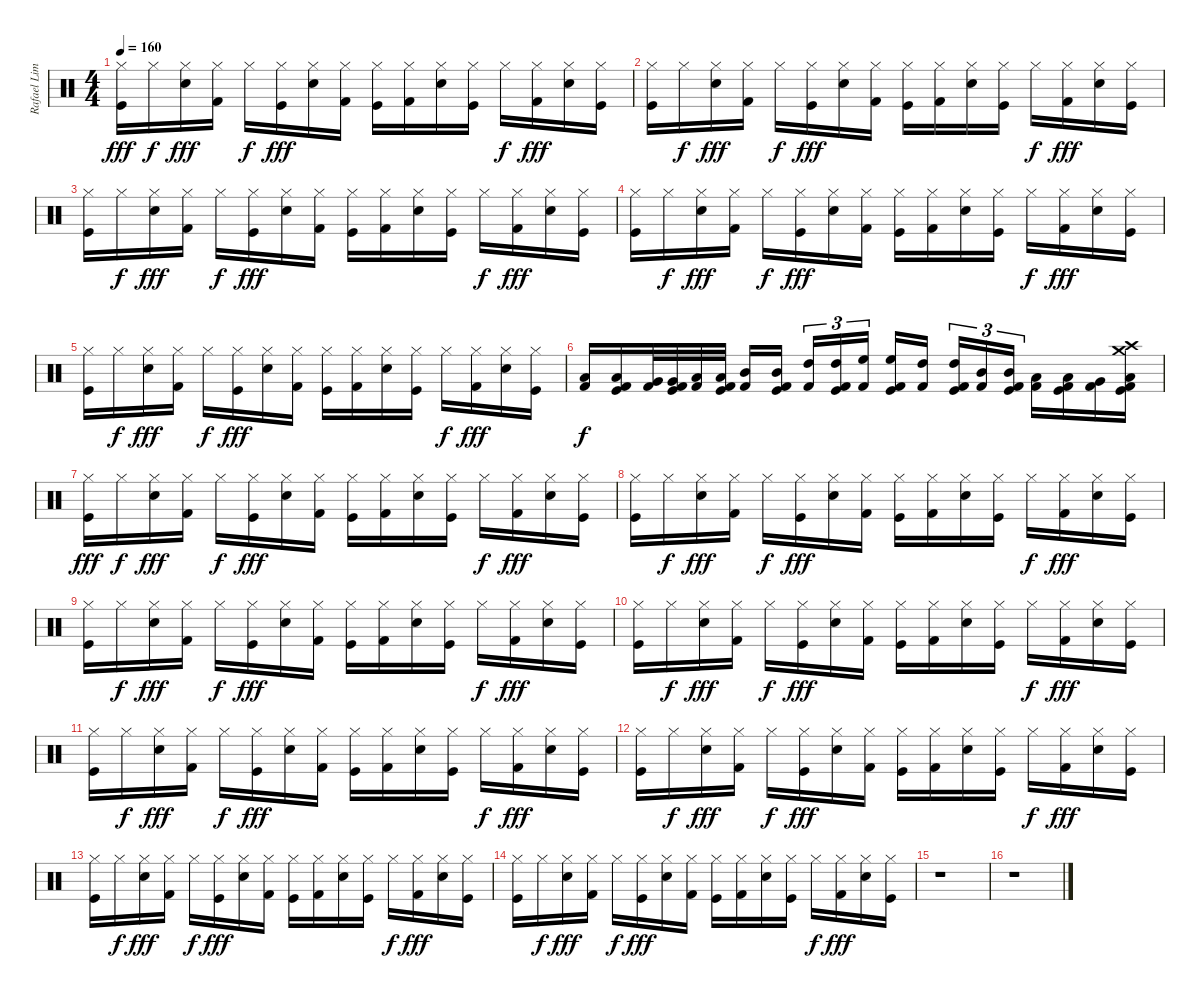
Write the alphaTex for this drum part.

\track ("Rafael Lima" "Rafael Lim") {instrument percussion}
\staff {score}
\articulation defaults
\ts (4 4)
\tempo 160
\clef neutral
\ks c
("Hi-Hat (closed)" "Kick (hit)").16{dy fff} "Hi-Hat (closed)".16{dy f} ("Hi-Hat (closed)" "Electric Snare (hit)").16{dy fff} ("Hi-Hat (closed)" "Kick (hit) 2").16 "Hi-Hat (closed)".16{dy f} ("Hi-Hat (closed)" "Kick (hit)").16{dy fff} ("Hi-Hat (closed)" "Electric Snare (hit)").16 ("Hi-Hat (closed)" "Kick (hit) 2").16 ("Hi-Hat (closed)" "Kick (hit)").16 ("Hi-Hat (closed)" "Kick (hit) 2").16 ("Hi-Hat (closed)" "Electric Snare (hit)").16 ("Hi-Hat (closed)" "Kick (hit)").16 "Hi-Hat (closed)".16{dy f} ("Hi-Hat (closed)" "Kick (hit) 2").16{dy fff} ("Hi-Hat (closed)" "Electric Snare (hit)").16 ("Hi-Hat (closed)" "Kick (hit)").16 |
("Hi-Hat (closed)" "Kick (hit)").16 "Hi-Hat (closed)".16{dy f} ("Hi-Hat (closed)" "Electric Snare (hit)").16{dy fff} ("Hi-Hat (closed)" "Kick (hit) 2").16 "Hi-Hat (closed)".16{dy f} ("Hi-Hat (closed)" "Kick (hit)").16{dy fff} ("Hi-Hat (closed)" "Electric Snare (hit)").16 ("Hi-Hat (closed)" "Kick (hit) 2").16 ("Hi-Hat (closed)" "Kick (hit)").16 ("Hi-Hat (closed)" "Kick (hit) 2").16 ("Hi-Hat (closed)" "Electric Snare (hit)").16 ("Hi-Hat (closed)" "Kick (hit)").16 "Hi-Hat (closed)".16{dy f} ("Hi-Hat (closed)" "Kick (hit) 2").16{dy fff} ("Hi-Hat (closed)" "Electric Snare (hit)").16 ("Hi-Hat (closed)" "Kick (hit)").16 |
("Hi-Hat (closed)" "Kick (hit)").16 "Hi-Hat (closed)".16{dy f} ("Hi-Hat (closed)" "Electric Snare (hit)").16{dy fff} ("Hi-Hat (closed)" "Kick (hit) 2").16 "Hi-Hat (closed)".16{dy f} ("Hi-Hat (closed)" "Kick (hit)").16{dy fff} ("Hi-Hat (closed)" "Electric Snare (hit)").16 ("Hi-Hat (closed)" "Kick (hit) 2").16 ("Hi-Hat (closed)" "Kick (hit)").16 ("Hi-Hat (closed)" "Kick (hit) 2").16 ("Hi-Hat (closed)" "Electric Snare (hit)").16 ("Hi-Hat (closed)" "Kick (hit)").16 "Hi-Hat (closed)".16{dy f} ("Hi-Hat (closed)" "Kick (hit) 2").16{dy fff} ("Hi-Hat (closed)" "Electric Snare (hit)").16 ("Hi-Hat (closed)" "Kick (hit)").16 |
("Hi-Hat (closed)" "Kick (hit)").16 "Hi-Hat (closed)".16{dy f} ("Hi-Hat (closed)" "Electric Snare (hit)").16{dy fff} ("Hi-Hat (closed)" "Kick (hit) 2").16 "Hi-Hat (closed)".16{dy f} ("Hi-Hat (closed)" "Kick (hit)").16{dy fff} ("Hi-Hat (closed)" "Electric Snare (hit)").16 ("Hi-Hat (closed)" "Kick (hit) 2").16 ("Hi-Hat (closed)" "Kick (hit)").16 ("Hi-Hat (closed)" "Kick (hit) 2").16 ("Hi-Hat (closed)" "Electric Snare (hit)").16 ("Hi-Hat (closed)" "Kick (hit)").16 "Hi-Hat (closed)".16{dy f} ("Hi-Hat (closed)" "Kick (hit) 2").16{dy fff} ("Hi-Hat (closed)" "Electric Snare (hit)").16 ("Hi-Hat (closed)" "Kick (hit)").16 |
("Hi-Hat (closed)" "Kick (hit)").16 "Hi-Hat (closed)".16{dy f} ("Hi-Hat (closed)" "Electric Snare (hit)").16{dy fff} ("Hi-Hat (closed)" "Kick (hit) 2").16 "Hi-Hat (closed)".16{dy f} ("Hi-Hat (closed)" "Kick (hit)").16{dy fff} ("Hi-Hat (closed)" "Electric Snare (hit)").16 ("Hi-Hat (closed)" "Kick (hit) 2").16 ("Hi-Hat (closed)" "Kick (hit)").16 ("Hi-Hat (closed)" "Kick (hit) 2").16 ("Hi-Hat (closed)" "Electric Snare (hit)").16 ("Hi-Hat (closed)" "Kick (hit)").16 "Hi-Hat (closed)".16{dy f} ("Hi-Hat (closed)" "Kick (hit) 2").16{dy fff} ("Hi-Hat (closed)" "Electric Snare (hit)").16 ("Hi-Hat (closed)" "Kick (hit)").16 |
("Low Floor Tom (hit)" "Kick (hit) 2").16{dy f} ("Low Floor Tom (hit)" "Kick (hit)" "Kick (hit) 2").16 ("Very Low Tom (hit)" "Kick (hit) 2").32 ("Very Low Tom (hit)" "Kick (hit)" "Kick (hit) 2").32 ("Low Tom (hit)" "Kick (hit) 2").32 ("Low Tom (hit)" "Kick (hit)" "Kick (hit) 2").32 ("Mid Tom (hit)" "Kick (hit) 2").16 ("Mid Tom (hit)" "Kick (hit)" "Kick (hit) 2").16 ("High Tom (hit)" "Kick (hit) 2").16{tu (3 2)} ("High Tom (hit)" "Kick (hit)" "Kick (hit) 2").16{tu (3 2)} ("High Floor Tom (hit)" "Kick (hit) 2").16{tu (3 2)} ("High Floor Tom (hit)" "Kick (hit)" "Kick (hit) 2").16 ("High Tom (hit)" "Kick (hit) 2").16 ("High Tom (hit)" "Kick (hit)" "Kick (hit) 2").16{tu (3 2)} ("Mid Tom (hit)" "Kick (hit) 2").16{tu (3 2)} ("Mid Tom (hit)" "Kick (hit)" "Kick (hit) 2").16{tu (3 2)} ("Low Tom (hit)" "Kick (hit) 2").16 ("Low Tom (hit)" "Kick (hit)" "Kick (hit) 2").16 ("Very Low Tom (hit)" "Kick (hit) 2").16 ("Crash medium (hit)" "Crash high (hit)" "Low Floor Tom (hit)" "Kick (hit)" "Kick (hit) 2").16 |
("Hi-Hat (closed)" "Kick (hit)").16{dy fff} "Hi-Hat (closed)".16{dy f} ("Hi-Hat (closed)" "Electric Snare (hit)").16{dy fff} ("Hi-Hat (closed)" "Kick (hit) 2").16 "Hi-Hat (closed)".16{dy f} ("Hi-Hat (closed)" "Kick (hit)").16{dy fff} ("Hi-Hat (closed)" "Electric Snare (hit)").16 ("Hi-Hat (closed)" "Kick (hit) 2").16 ("Hi-Hat (closed)" "Kick (hit)").16 ("Hi-Hat (closed)" "Kick (hit) 2").16 ("Hi-Hat (closed)" "Electric Snare (hit)").16 ("Hi-Hat (closed)" "Kick (hit)").16 "Hi-Hat (closed)".16{dy f} ("Hi-Hat (closed)" "Kick (hit) 2").16{dy fff} ("Hi-Hat (closed)" "Electric Snare (hit)").16 ("Hi-Hat (closed)" "Kick (hit)").16 |
("Hi-Hat (closed)" "Kick (hit)").16 "Hi-Hat (closed)".16{dy f} ("Hi-Hat (closed)" "Electric Snare (hit)").16{dy fff} ("Hi-Hat (closed)" "Kick (hit) 2").16 "Hi-Hat (closed)".16{dy f} ("Hi-Hat (closed)" "Kick (hit)").16{dy fff} ("Hi-Hat (closed)" "Electric Snare (hit)").16 ("Hi-Hat (closed)" "Kick (hit) 2").16 ("Hi-Hat (closed)" "Kick (hit)").16 ("Hi-Hat (closed)" "Kick (hit) 2").16 ("Hi-Hat (closed)" "Electric Snare (hit)").16 ("Hi-Hat (closed)" "Kick (hit)").16 "Hi-Hat (closed)".16{dy f} ("Hi-Hat (closed)" "Kick (hit) 2").16{dy fff} ("Hi-Hat (closed)" "Electric Snare (hit)").16 ("Hi-Hat (closed)" "Kick (hit)").16 |
("Hi-Hat (closed)" "Kick (hit)").16 "Hi-Hat (closed)".16{dy f} ("Hi-Hat (closed)" "Electric Snare (hit)").16{dy fff} ("Hi-Hat (closed)" "Kick (hit) 2").16 "Hi-Hat (closed)".16{dy f} ("Hi-Hat (closed)" "Kick (hit)").16{dy fff} ("Hi-Hat (closed)" "Electric Snare (hit)").16 ("Hi-Hat (closed)" "Kick (hit) 2").16 ("Hi-Hat (closed)" "Kick (hit)").16 ("Hi-Hat (closed)" "Kick (hit) 2").16 ("Hi-Hat (closed)" "Electric Snare (hit)").16 ("Hi-Hat (closed)" "Kick (hit)").16 "Hi-Hat (closed)".16{dy f} ("Hi-Hat (closed)" "Kick (hit) 2").16{dy fff} ("Hi-Hat (closed)" "Electric Snare (hit)").16 ("Hi-Hat (closed)" "Kick (hit)").16 |
("Hi-Hat (closed)" "Kick (hit)").16 "Hi-Hat (closed)".16{dy f} ("Hi-Hat (closed)" "Electric Snare (hit)").16{dy fff} ("Hi-Hat (closed)" "Kick (hit) 2").16 "Hi-Hat (closed)".16{dy f} ("Hi-Hat (closed)" "Kick (hit)").16{dy fff} ("Hi-Hat (closed)" "Electric Snare (hit)").16 ("Hi-Hat (closed)" "Kick (hit) 2").16 ("Hi-Hat (closed)" "Kick (hit)").16 ("Hi-Hat (closed)" "Kick (hit) 2").16 ("Hi-Hat (closed)" "Electric Snare (hit)").16 ("Hi-Hat (closed)" "Kick (hit)").16 "Hi-Hat (closed)".16{dy f} ("Hi-Hat (closed)" "Kick (hit) 2").16{dy fff} ("Hi-Hat (closed)" "Electric Snare (hit)").16 ("Hi-Hat (closed)" "Kick (hit)").16 |
("Hi-Hat (closed)" "Kick (hit)").16 "Hi-Hat (closed)".16{dy f} ("Hi-Hat (closed)" "Electric Snare (hit)").16{dy fff} ("Hi-Hat (closed)" "Kick (hit) 2").16 "Hi-Hat (closed)".16{dy f} ("Hi-Hat (closed)" "Kick (hit)").16{dy fff} ("Hi-Hat (closed)" "Electric Snare (hit)").16 ("Hi-Hat (closed)" "Kick (hit) 2").16 ("Hi-Hat (closed)" "Kick (hit)").16 ("Hi-Hat (closed)" "Kick (hit) 2").16 ("Hi-Hat (closed)" "Electric Snare (hit)").16 ("Hi-Hat (closed)" "Kick (hit)").16 "Hi-Hat (closed)".16{dy f} ("Hi-Hat (closed)" "Kick (hit) 2").16{dy fff} ("Hi-Hat (closed)" "Electric Snare (hit)").16 ("Hi-Hat (closed)" "Kick (hit)").16 |
("Hi-Hat (closed)" "Kick (hit)").16 "Hi-Hat (closed)".16{dy f} ("Hi-Hat (closed)" "Electric Snare (hit)").16{dy fff} ("Hi-Hat (closed)" "Kick (hit) 2").16 "Hi-Hat (closed)".16{dy f} ("Hi-Hat (closed)" "Kick (hit)").16{dy fff} ("Hi-Hat (closed)" "Electric Snare (hit)").16 ("Hi-Hat (closed)" "Kick (hit) 2").16 ("Hi-Hat (closed)" "Kick (hit)").16 ("Hi-Hat (closed)" "Kick (hit) 2").16 ("Hi-Hat (closed)" "Electric Snare (hit)").16 ("Hi-Hat (closed)" "Kick (hit)").16 "Hi-Hat (closed)".16{dy f} ("Hi-Hat (closed)" "Kick (hit) 2").16{dy fff} ("Hi-Hat (closed)" "Electric Snare (hit)").16 ("Hi-Hat (closed)" "Kick (hit)").16 |
("Hi-Hat (closed)" "Kick (hit)").16 "Hi-Hat (closed)".16{dy f} ("Hi-Hat (closed)" "Electric Snare (hit)").16{dy fff} ("Hi-Hat (closed)" "Kick (hit) 2").16 "Hi-Hat (closed)".16{dy f} ("Hi-Hat (closed)" "Kick (hit)").16{dy fff} ("Hi-Hat (closed)" "Electric Snare (hit)").16 ("Hi-Hat (closed)" "Kick (hit) 2").16 ("Hi-Hat (closed)" "Kick (hit)").16 ("Hi-Hat (closed)" "Kick (hit) 2").16 ("Hi-Hat (closed)" "Electric Snare (hit)").16 ("Hi-Hat (closed)" "Kick (hit)").16 "Hi-Hat (closed)".16{dy f} ("Hi-Hat (closed)" "Kick (hit) 2").16{dy fff} ("Hi-Hat (closed)" "Electric Snare (hit)").16 ("Hi-Hat (closed)" "Kick (hit)").16 |
("Hi-Hat (closed)" "Kick (hit)").16 "Hi-Hat (closed)".16{dy f} ("Hi-Hat (closed)" "Electric Snare (hit)").16{dy fff} ("Hi-Hat (closed)" "Kick (hit) 2").16 "Hi-Hat (closed)".16{dy f} ("Hi-Hat (closed)" "Kick (hit)").16{dy fff} ("Hi-Hat (closed)" "Electric Snare (hit)").16 ("Hi-Hat (closed)" "Kick (hit) 2").16 ("Hi-Hat (closed)" "Kick (hit)").16 ("Hi-Hat (closed)" "Kick (hit) 2").16 ("Hi-Hat (closed)" "Electric Snare (hit)").16 ("Hi-Hat (closed)" "Kick (hit)").16 "Hi-Hat (closed)".16{dy f} ("Hi-Hat (closed)" "Kick (hit) 2").16{dy fff} ("Hi-Hat (closed)" "Electric Snare (hit)").16 ("Hi-Hat (closed)" "Kick (hit)").16 |
r.1 |
r.1
